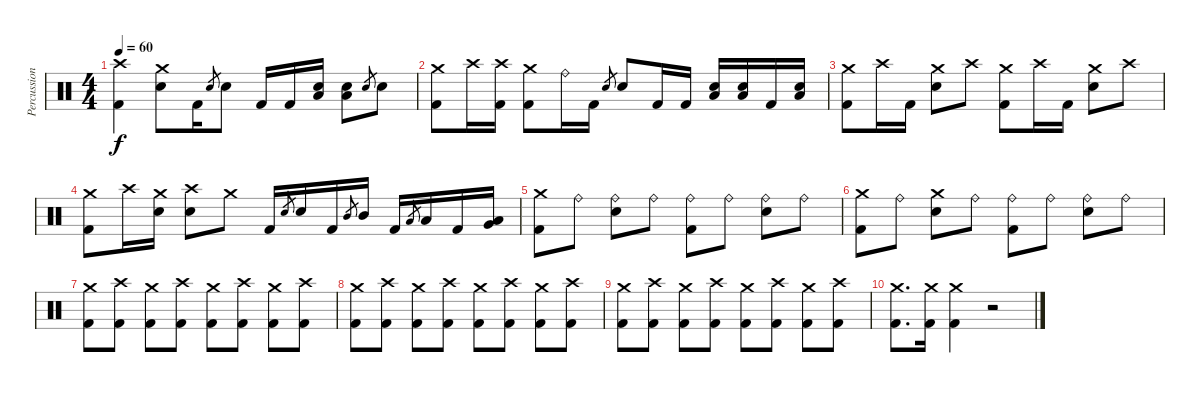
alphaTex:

\track ("Percussion" "Percussion") {instrument percussion}
\staff {score}
\articulation defaults
\ts (4 4)
\tempo 60
\clef neutral
\ks c
("Crash high (hit)" "Kick (hit) 2").4{dy f} ("Crash medium (hit)" "Snare (hit) 2").8 "Kick (hit) 2".16 "Snare (hit) 2".8{gr} "Snare (hit) 2".8 "Kick (hit) 2".16 "Kick (hit) 2".16 ("Low Tom (hit)" "Snare (hit) 2").16 ("Low Tom (hit)" "Snare (hit) 2").8 "Snare (hit) 2".8{gr} "Snare (hit) 2".8 |
("Crash medium (hit)" "Kick (hit) 2").8 "Crash high (hit)".16 ("Crash high (hit)" "Kick (hit) 2").16 ("Crash medium (hit)" "Kick (hit) 2").8 "Ride (bell)".16 "Kick (hit) 2".16 "Snare (hit) 2".8{gr} "Snare (hit) 2".8 "Kick (hit) 2".16 "Kick (hit) 2".16 ("Low Tom (hit)" "Snare (hit) 2").16 ("Low Tom (hit)" "Snare (hit) 2").16 "Kick (hit) 2".16 ("Low Tom (hit)" "Snare (hit) 2").16 |
("Crash medium (hit)" "Kick (hit) 2").8 "Crash high (hit)".16 "Kick (hit) 2".16 ("Crash medium (hit)" "Snare (hit) 2").8 "Crash high (hit)".8 ("Crash medium (hit)" "Kick (hit) 2").8 "Crash high (hit)".16 "Kick (hit) 2".16 ("Crash medium (hit)" "Snare (hit) 2").8 "Crash high (hit)".8 |
("Crash medium (hit)" "Kick (hit) 2").8 "Crash high (hit)".16 ("Crash medium (hit)" "Snare (hit) 2").16 ("Crash high (hit)" "Snare (hit) 2").8 "Crash medium (hit)".8 "Kick (hit) 2".16 "Snare (hit) 2".8{gr} "Snare (hit) 2".16 "Kick (hit) 2".16 "Mid Tom (hit)".8{gr} "Mid Tom (hit)".16 "Kick (hit) 2".16 "Low Tom (hit)".8{gr} "Low Tom (hit)".16 "Kick (hit) 2".16 ("Low Tom (hit)" "Very Low Tom (hit)").16 |
("Crash medium (hit)" "Kick (hit) 2").8 "Ride (bell)".8 ("Ride (bell)" "Snare (hit) 2").8 "Ride (bell)".8 ("Ride (bell)" "Kick (hit) 2").8 "Ride (bell)".8 ("Ride (bell)" "Snare (hit) 2").8 "Ride (bell)".8 |
("Crash medium (hit)" "Kick (hit) 2").8 "Ride (bell)".8 ("Crash medium (hit)" "Snare (hit) 2").8 "Ride (bell)".8 ("Ride (bell)" "Kick (hit) 2").8 "Ride (bell)".8 ("Ride (bell)" "Snare (hit) 2").8 "Ride (bell)".8 |
("Crash medium (hit)" "Kick (hit) 2").8 ("Crash high (hit)" "Kick (hit) 2").8 ("Crash medium (hit)" "Kick (hit) 2").8 ("Crash high (hit)" "Kick (hit) 2").8 ("Crash medium (hit)" "Kick (hit) 2").8 ("Crash high (hit)" "Kick (hit) 2").8 ("Crash medium (hit)" "Kick (hit) 2").8 ("Crash high (hit)" "Kick (hit) 2").8 |
("Crash medium (hit)" "Kick (hit) 2").8 ("Crash high (hit)" "Kick (hit) 2").8 ("Crash medium (hit)" "Kick (hit) 2").8 ("Crash high (hit)" "Kick (hit) 2").8 ("Crash medium (hit)" "Kick (hit) 2").8 ("Crash high (hit)" "Kick (hit) 2").8 ("Crash medium (hit)" "Kick (hit) 2").8 ("Crash high (hit)" "Kick (hit) 2").8 |
("Crash medium (hit)" "Kick (hit) 2").8 ("Crash high (hit)" "Kick (hit) 2").8 ("Crash medium (hit)" "Kick (hit) 2").8 ("Crash high (hit)" "Kick (hit) 2").8 ("Crash medium (hit)" "Kick (hit) 2").8 ("Crash high (hit)" "Kick (hit) 2").8 ("Crash medium (hit)" "Kick (hit) 2").8 ("Crash high (hit)" "Kick (hit) 2").8 |
("Crash medium (hit)" "Kick (hit) 2").8{d} ("Crash medium (hit)" "Kick (hit) 2").16 ("Crash medium (hit)" "Kick (hit) 2").4 r.2
